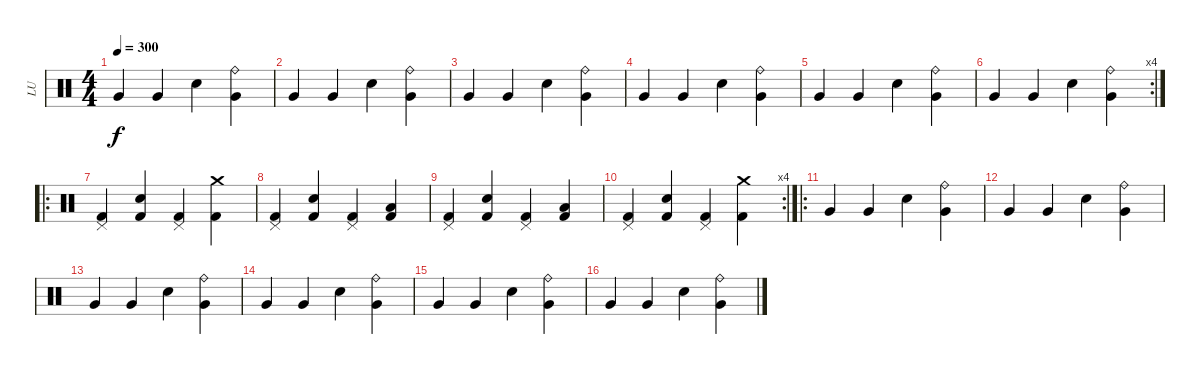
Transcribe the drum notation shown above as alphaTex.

\track ("LU" "LU") {instrument percussion}
\staff {score}
\articulation defaults
\ts (4 4)
\tempo 300
\clef neutral
\ks c "Very Low Tom (hit)".4{dy f} "Very Low Tom (hit)".4 "Snare (hit) 2".4
("Ride (bell)" "Very Low Tom (hit)").4 |
"Very Low Tom (hit)".4 "Very Low Tom (hit)".4 "Snare (hit) 2".4 ("Ride (bell)" "Very Low Tom (hit)").4 |
"Very Low Tom (hit)".4 "Very Low Tom (hit)".4 "Snare (hit) 2".4 ("Ride (bell)" "Very Low Tom (hit)").4 |
"Very Low Tom (hit)".4 "Very Low Tom (hit)".4 "Snare (hit) 2".4 ("Ride (bell)" "Very Low Tom (hit)").4 |
"Very Low Tom (hit)".4 "Very Low Tom (hit)".4 "Snare (hit) 2".4 ("Ride (bell)" "Very Low Tom (hit)").4 |
\rc 4 "Very Low Tom (hit)".4 "Very Low Tom (hit)".4 "Snare (hit) 2".4
("Ride (bell)" "Very Low Tom (hit)").4 |
\ro
("Pedal Hi-Hat (hit)" "Kick (hit) 2").4 ("Snare (hit) 2" "Kick (hit) 2").4 ("Pedal Hi-Hat (hit)" "Kick (hit) 2").4 ("Crash medium (hit)" "Kick (hit) 2").4 |
("Pedal Hi-Hat (hit)" "Kick (hit) 2").4 ("Snare (hit) 2" "Kick (hit) 2").4 ("Pedal Hi-Hat (hit)" "Kick (hit) 2").4 ("Low Floor Tom (hit)" "Kick (hit) 2").4 |
("Pedal Hi-Hat (hit)" "Kick (hit) 2").4 ("Snare (hit) 2" "Kick (hit) 2").4 ("Pedal Hi-Hat (hit)" "Kick (hit) 2").4 ("Low Floor Tom (hit)" "Kick (hit) 2").4 |
\rc 4
("Pedal Hi-Hat (hit)" "Kick (hit) 2").4 ("Snare (hit) 2" "Kick (hit) 2").4 ("Pedal Hi-Hat (hit)" "Kick (hit) 2").4 ("Crash medium (hit)" "Kick (hit) 2").4 |
\ro "Very Low Tom (hit)".4 "Very Low Tom (hit)".4 "Snare (hit) 2".4
("Ride (bell)" "Very Low Tom (hit)").4 |
"Very Low Tom (hit)".4 "Very Low Tom (hit)".4 "Snare (hit) 2".4 ("Ride (bell)" "Very Low Tom (hit)").4 |
"Very Low Tom (hit)".4 "Very Low Tom (hit)".4 "Snare (hit) 2".4 ("Ride (bell)" "Very Low Tom (hit)").4 |
"Very Low Tom (hit)".4 "Very Low Tom (hit)".4 "Snare (hit) 2".4 ("Ride (bell)" "Very Low Tom (hit)").4 |
"Very Low Tom (hit)".4 "Very Low Tom (hit)".4 "Snare (hit) 2".4 ("Ride (bell)" "Very Low Tom (hit)").4 |
"Very Low Tom (hit)".4 "Very Low Tom (hit)".4 "Snare (hit) 2".4 ("Ride (bell)" "Very Low Tom (hit)").4
